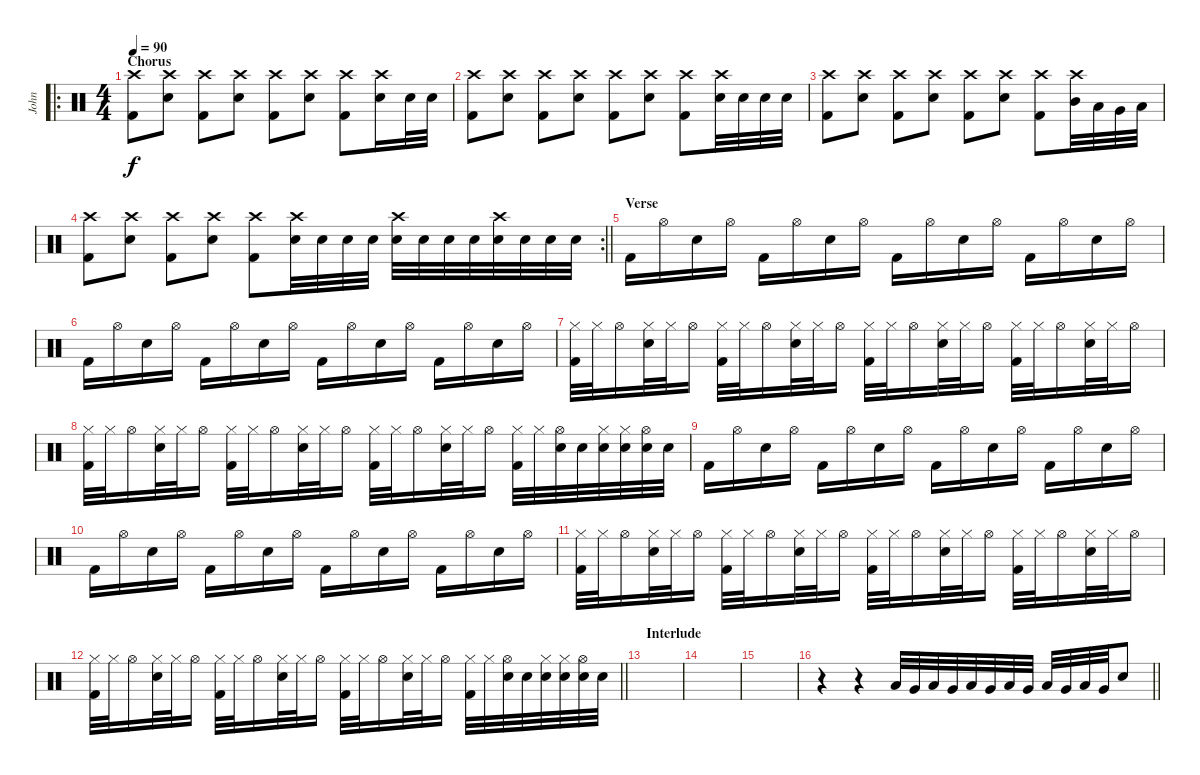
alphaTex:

\track ("John" "John") {instrument percussion}
\staff {score}
\articulation defaults
\ro
\ts (4 4)
\section ("" "Chorus")
\tempo 90
\clef neutral
\ks c
("Crash high (hit)" "Kick (hit) 2").8{dy f} ("Crash high (hit)" "Electric Snare (hit)").8 ("Crash high (hit)" "Kick (hit) 2").8 ("Crash high (hit)" "Electric Snare (hit)").8 ("Crash high (hit)" "Kick (hit) 2").8 ("Crash high (hit)" "Electric Snare (hit)").8 ("Crash high (hit)" "Kick (hit) 2").8 ("Crash high (hit)" "Electric Snare (hit)").16 "Electric Snare (hit)".32 "Electric Snare (hit)".32 |
("Crash high (hit)" "Kick (hit) 2").8 ("Crash high (hit)" "Electric Snare (hit)").8 ("Crash high (hit)" "Kick (hit) 2").8 ("Crash high (hit)" "Electric Snare (hit)").8 ("Crash high (hit)" "Kick (hit) 2").8 ("Crash high (hit)" "Electric Snare (hit)").8 ("Crash high (hit)" "Kick (hit) 2").8 ("Crash high (hit)" "Electric Snare (hit)").32 "Electric Snare (hit)".32 "Electric Snare (hit)".32 "Electric Snare (hit)".32 |
("Crash high (hit)" "Kick (hit) 2").8 ("Crash high (hit)" "Electric Snare (hit)").8 ("Crash high (hit)" "Kick (hit) 2").8 ("Crash high (hit)" "Electric Snare (hit)").8 ("Crash high (hit)" "Kick (hit) 2").8 ("Crash high (hit)" "Electric Snare (hit)").8 ("Crash high (hit)" "Kick (hit) 2").8 ("Crash high (hit)" "Mid Tom (hit)").32 "Low Tom (hit)".32 "Very Low Tom (hit)".32 "Low Floor Tom (hit)".32 |
\rc 2
\barLineRight lightlight
("Crash high (hit)" "Kick (hit) 2").8 ("Crash high (hit)" "Electric Snare (hit)").8 ("Crash high (hit)" "Kick (hit) 2").8 ("Crash high (hit)" "Electric Snare (hit)").8 ("Crash high (hit)" "Kick (hit) 2").8 ("Crash high (hit)" "Electric Snare (hit)").32 "Electric Snare (hit)".32 "Electric Snare (hit)".32 "Electric Snare (hit)".32 ("Crash high (hit)" "Electric Snare (hit)").32 "Electric Snare (hit)".32 "Electric Snare (hit)".32 "Electric Snare (hit)".32 ("Crash high (hit)" "Electric Snare (hit)").32 "Electric Snare (hit)".32 "Electric Snare (hit)".32 "Electric Snare (hit)".32 |
\section ("" "Verse")
"Kick (hit) 2".16 "Hi-Hat (open)".16 "Electric Snare (hit)".16 "Hi-Hat (open)".16 "Kick (hit) 2".16 "Hi-Hat (open)".16 "Electric Snare (hit)".16 "Hi-Hat (open)".16 "Kick (hit) 2".16 "Hi-Hat (open)".16 "Electric Snare (hit)".16 "Hi-Hat (open)".16 "Kick (hit) 2".16 "Hi-Hat (open)".16 "Electric Snare (hit)".16 "Hi-Hat (open)".16 |
"Kick (hit) 2".16 "Hi-Hat (open)".16 "Electric Snare (hit)".16 "Hi-Hat (open)".16 "Kick (hit) 2".16 "Hi-Hat (open)".16 "Electric Snare (hit)".16 "Hi-Hat (open)".16 "Kick (hit) 2".16 "Hi-Hat (open)".16 "Electric Snare (hit)".16 "Hi-Hat (open)".16 "Kick (hit) 2".16 "Hi-Hat (open)".16 "Electric Snare (hit)".16 "Hi-Hat (open)".16 |
("Hi-Hat (closed)" "Kick (hit) 2").32 "Hi-Hat (closed)".32 "Hi-Hat (open)".16 ("Hi-Hat (closed)" "Electric Snare (hit)").32 "Hi-Hat (closed)".32 "Hi-Hat (open)".16 ("Hi-Hat (closed)" "Kick (hit) 2").32 "Hi-Hat (closed)".32 "Hi-Hat (open)".16 ("Hi-Hat (closed)" "Electric Snare (hit)").32 "Hi-Hat (closed)".32 "Hi-Hat (open)".16 ("Hi-Hat (closed)" "Kick (hit) 2").32 "Hi-Hat (closed)".32 "Hi-Hat (open)".16 ("Hi-Hat (closed)" "Electric Snare (hit)").32 "Hi-Hat (closed)".32 "Hi-Hat (open)".16 ("Hi-Hat (closed)" "Kick (hit) 2").32 "Hi-Hat (closed)".32 "Hi-Hat (open)".16 ("Hi-Hat (closed)" "Electric Snare (hit)").32 "Hi-Hat (closed)".32 "Hi-Hat (open)".16 |
("Hi-Hat (closed)" "Kick (hit) 2").32 "Hi-Hat (closed)".32 "Hi-Hat (open)".16 ("Hi-Hat (closed)" "Electric Snare (hit)").32 "Hi-Hat (closed)".32 "Hi-Hat (open)".16 ("Hi-Hat (closed)" "Kick (hit) 2").32 "Hi-Hat (closed)".32 "Hi-Hat (open)".16 ("Hi-Hat (closed)" "Electric Snare (hit)").32 "Hi-Hat (closed)".32 "Hi-Hat (open)".16 ("Hi-Hat (closed)" "Kick (hit) 2").32 "Hi-Hat (closed)".32 "Hi-Hat (open)".16 ("Hi-Hat (closed)" "Electric Snare (hit)").32 "Hi-Hat (closed)".32 "Hi-Hat (open)".16 ("Hi-Hat (closed)" "Kick (hit) 2").32 "Hi-Hat (closed)".32 ("Hi-Hat (open)" "Electric Snare (hit)").32 "Electric Snare (hit)".32 ("Hi-Hat (closed)" "Electric Snare (hit)").32 ("Hi-Hat (closed)" "Electric Snare (hit)").32 ("Hi-Hat (open)" "Electric Snare (hit)").32 "Electric Snare (hit)".32 |
"Kick (hit) 2".16 "Hi-Hat (open)".16 "Electric Snare (hit)".16 "Hi-Hat (open)".16 "Kick (hit) 2".16 "Hi-Hat (open)".16 "Electric Snare (hit)".16 "Hi-Hat (open)".16 "Kick (hit) 2".16 "Hi-Hat (open)".16 "Electric Snare (hit)".16 "Hi-Hat (open)".16 "Kick (hit) 2".16 "Hi-Hat (open)".16 "Electric Snare (hit)".16 "Hi-Hat (open)".16 |
"Kick (hit) 2".16 "Hi-Hat (open)".16 "Electric Snare (hit)".16 "Hi-Hat (open)".16 "Kick (hit) 2".16 "Hi-Hat (open)".16 "Electric Snare (hit)".16 "Hi-Hat (open)".16 "Kick (hit) 2".16 "Hi-Hat (open)".16 "Electric Snare (hit)".16 "Hi-Hat (open)".16 "Kick (hit) 2".16 "Hi-Hat (open)".16 "Electric Snare (hit)".16 "Hi-Hat (open)".16 |
("Hi-Hat (closed)" "Kick (hit) 2").32 "Hi-Hat (closed)".32 "Hi-Hat (open)".16 ("Hi-Hat (closed)" "Electric Snare (hit)").32 "Hi-Hat (closed)".32 "Hi-Hat (open)".16 ("Hi-Hat (closed)" "Kick (hit) 2").32 "Hi-Hat (closed)".32 "Hi-Hat (open)".16 ("Hi-Hat (closed)" "Electric Snare (hit)").32 "Hi-Hat (closed)".32 "Hi-Hat (open)".16 ("Hi-Hat (closed)" "Kick (hit) 2").32 "Hi-Hat (closed)".32 "Hi-Hat (open)".16 ("Hi-Hat (closed)" "Electric Snare (hit)").32 "Hi-Hat (closed)".32 "Hi-Hat (open)".16 ("Hi-Hat (closed)" "Kick (hit) 2").32 "Hi-Hat (closed)".32 "Hi-Hat (open)".16 ("Hi-Hat (closed)" "Electric Snare (hit)").32 "Hi-Hat (closed)".32 "Hi-Hat (open)".16 |
\barLineRight lightlight
("Hi-Hat (closed)" "Kick (hit) 2").32 "Hi-Hat (closed)".32 "Hi-Hat (open)".16 ("Hi-Hat (closed)" "Electric Snare (hit)").32 "Hi-Hat (closed)".32 "Hi-Hat (open)".16 ("Hi-Hat (closed)" "Kick (hit) 2").32 "Hi-Hat (closed)".32 "Hi-Hat (open)".16 ("Hi-Hat (closed)" "Electric Snare (hit)").32 "Hi-Hat (closed)".32 "Hi-Hat (open)".16 ("Hi-Hat (closed)" "Kick (hit) 2").32 "Hi-Hat (closed)".32 "Hi-Hat (open)".16 ("Hi-Hat (closed)" "Electric Snare (hit)").32 "Hi-Hat (closed)".32 "Hi-Hat (open)".16 ("Hi-Hat (closed)" "Kick (hit) 2").32 "Hi-Hat (closed)".32 ("Hi-Hat (open)" "Electric Snare (hit)").32 "Electric Snare (hit)".32 ("Hi-Hat (closed)" "Electric Snare (hit)").32 ("Hi-Hat (closed)" "Electric Snare (hit)").32 ("Hi-Hat (open)" "Electric Snare (hit)").32 "Electric Snare (hit)".32 |
\section ("" "Interlude")
|
|
|
\barLineRight lightlight
r.4 r.4 "Low Tom (hit)".32 "Very Low Tom (hit)".32 "Low Floor Tom (hit)".32 "Very Low Tom (hit)".32 "Low Tom (hit)".32 "Very Low Tom (hit)".32 "Low Floor Tom (hit)".32 "Very Low Tom (hit)".32 "Low Tom (hit)".32 "Very Low Tom (hit)".32 "Low Floor Tom (hit)".32 "Very Low Tom (hit)".32 "Electric Snare (hit)".8
